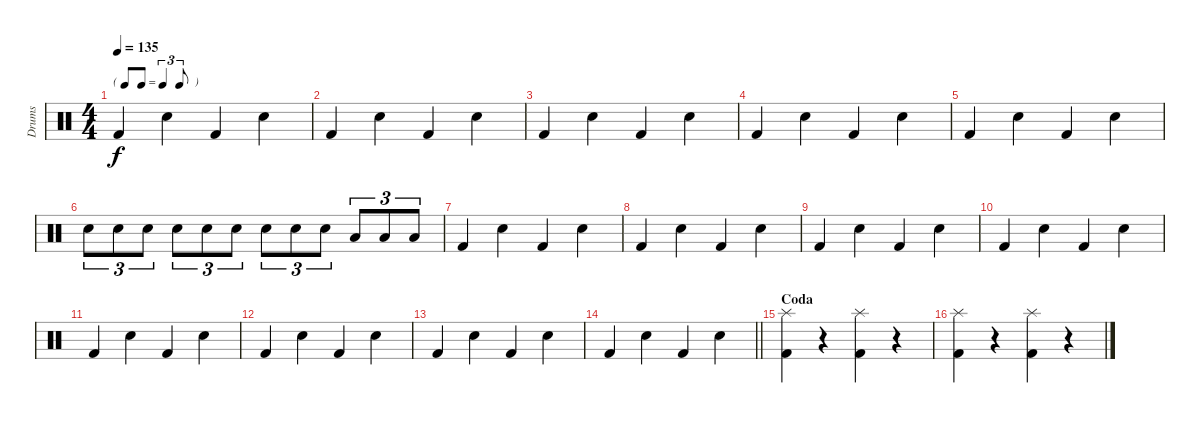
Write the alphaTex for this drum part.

\track ("Drums" "Drums") {instrument percussion}
\staff {score}
\articulation defaults
\ts (4 4)
\tf triplet8th
\tempo 135
\clef neutral
\ks c "Kick (hit) 2".4{dy f} "Snare (hit) 2".4 "Kick (hit) 2".4 "Snare (hit) 2".4
|
"Kick (hit) 2".4 "Snare (hit) 2".4 "Kick (hit) 2".4 "Snare (hit) 2".4 |
"Kick (hit) 2".4 "Snare (hit) 2".4 "Kick (hit) 2".4 "Snare (hit) 2".4 |
"Kick (hit) 2".4 "Snare (hit) 2".4 "Kick (hit) 2".4 "Snare (hit) 2".4 |
"Kick (hit) 2".4 "Snare (hit) 2".4 "Kick (hit) 2".4 "Snare (hit) 2".4 |
"Snare (hit) 2".8{tu (3 2)} "Snare (hit) 2".8{tu (3 2)} "Snare (hit) 2".8{tu (3 2)} "Snare (hit) 2".8{tu (3 2)} "Snare (hit) 2".8{tu (3 2)} "Snare (hit) 2".8{tu (3 2)} "Snare (hit) 2".8{tu (3 2)} "Snare (hit) 2".8{tu (3 2)} "Snare (hit) 2".8{tu (3 2)} "Low Tom (hit)".8{tu (3 2)} "Low Tom (hit)".8{tu (3 2)} "Low Tom (hit)".8{tu (3 2)} |
"Kick (hit) 2".4 "Snare (hit) 2".4 "Kick (hit) 2".4 "Snare (hit) 2".4 |
"Kick (hit) 2".4 "Snare (hit) 2".4 "Kick (hit) 2".4 "Snare (hit) 2".4 |
"Kick (hit) 2".4 "Snare (hit) 2".4 "Kick (hit) 2".4 "Snare (hit) 2".4 |
"Kick (hit) 2".4 "Snare (hit) 2".4 "Kick (hit) 2".4 "Snare (hit) 2".4 |
"Kick (hit) 2".4 "Snare (hit) 2".4 "Kick (hit) 2".4 "Snare (hit) 2".4 |
"Kick (hit) 2".4 "Snare (hit) 2".4 "Kick (hit) 2".4 "Snare (hit) 2".4 |
"Kick (hit) 2".4 "Snare (hit) 2".4 "Kick (hit) 2".4 "Snare (hit) 2".4 |
\barLineRight lightlight "Kick (hit) 2".4 "Snare (hit) 2".4 "Kick (hit) 2".4 "Snare (hit) 2".4
|
\section ("" "Coda")
("Splash (hit)" "Kick (hit) 2").4 r.4 ("Splash (hit)" "Kick (hit) 2").4 r.4 |
("Splash (hit)" "Kick (hit) 2").4 r.4 ("Splash (hit)" "Kick (hit) 2").4 r.4
